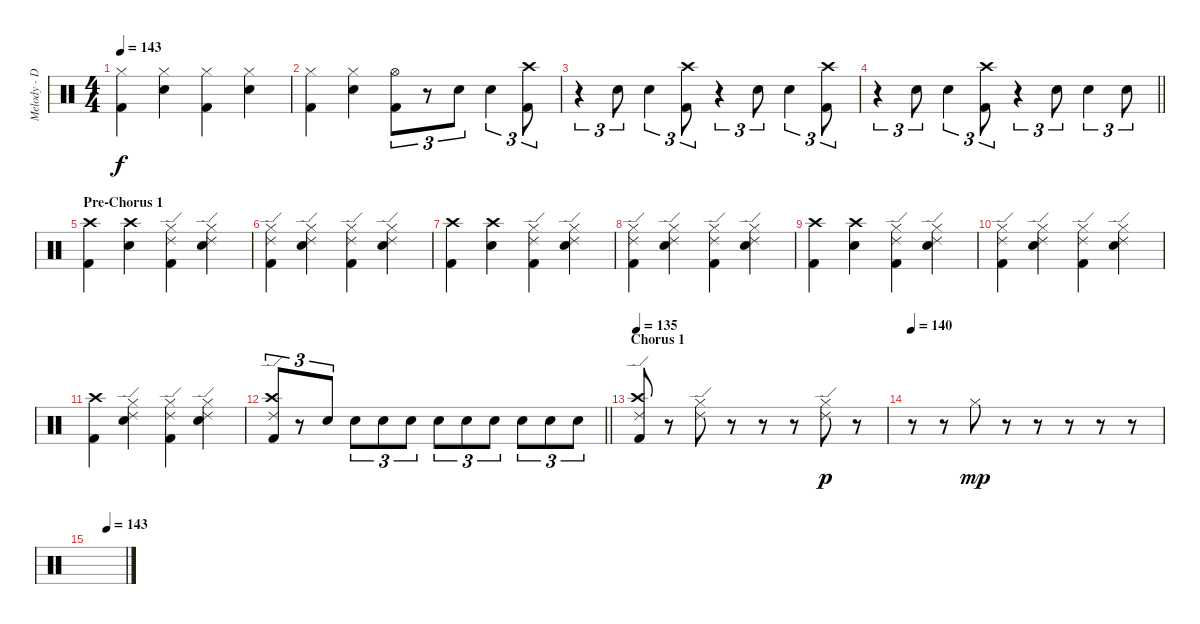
\track ("Melody - Drums" "Melody - D") {instrument percussion}
\staff {score}
\articulation defaults
\ts (4 4)
\tempo 143
\clef neutral
\ks c
("Hi-Hat (closed)" "Kick (hit) 2").4{dy f} ("Hi-Hat (closed)" "Electric Snare (hit)").4 ("Hi-Hat (closed)" "Kick (hit) 2").4 ("Hi-Hat (closed)" "Electric Snare (hit)").4 |
("Hi-Hat (closed)" "Kick (hit) 2").4 ("Hi-Hat (closed)" "Electric Snare (hit)").4 ("Hi-Hat (open)" "Kick (hit) 2").8{tu (3 2)} r.8{tu (3 2)} "Electric Snare (hit)".8{tu (3 2)} "Electric Snare (hit)".4{tu (3 2)} ("Crash high (hit)" "Kick (hit) 2").8{tu (3 2)} |
r.4{tu (3 2)} "Electric Snare (hit)".8{tu (3 2)} "Electric Snare (hit)".4{tu (3 2)} ("Crash high (hit)" "Kick (hit) 2").8{tu (3 2)} r.4{tu (3 2)} "Electric Snare (hit)".8{tu (3 2)} "Electric Snare (hit)".4{tu (3 2)} ("Crash high (hit)" "Kick (hit) 2").8{tu (3 2)} |
\barLineRight lightlight
r.4{tu (3 2)} "Electric Snare (hit)".8{tu (3 2)} "Electric Snare (hit)".4{tu (3 2)} ("Crash high (hit)" "Kick (hit) 2").8{tu (3 2)} r.4{tu (3 2)} "Electric Snare (hit)".8{tu (3 2)} "Electric Snare (hit)".4{tu (3 2)} "Electric Snare (hit)".8{tu (3 2)} |
\section ("" "Pre-Chorus 1")
("Crash high (hit)" "Kick (hit) 2").4 ("Crash high (hit)" "Electric Snare (hit)").4 ("Hi-Hat (closed)" "Ride (edge) 2" "Kick (hit) 2").4 ("Hi-Hat (closed)" "Ride (edge) 2" "Electric Snare (hit)").4 |
("Hi-Hat (closed)" "Ride (edge) 2" "Kick (hit) 2").4 ("Hi-Hat (closed)" "Ride (edge) 2" "Electric Snare (hit)").4 ("Hi-Hat (closed)" "Ride (edge) 2" "Kick (hit) 2").4 ("Hi-Hat (closed)" "Ride (edge) 2" "Electric Snare (hit)").4 |
("Crash high (hit)" "Kick (hit) 2").4 ("Crash high (hit)" "Electric Snare (hit)").4 ("Hi-Hat (closed)" "Ride (edge) 2" "Kick (hit) 2").4 ("Hi-Hat (closed)" "Ride (edge) 2" "Electric Snare (hit)").4 |
("Hi-Hat (closed)" "Ride (edge) 2" "Kick (hit) 2").4 ("Hi-Hat (closed)" "Ride (edge) 2" "Electric Snare (hit)").4 ("Hi-Hat (closed)" "Ride (edge) 2" "Kick (hit) 2").4 ("Hi-Hat (closed)" "Ride (edge) 2" "Electric Snare (hit)").4 |
("Crash high (hit)" "Kick (hit) 2").4 ("Crash high (hit)" "Electric Snare (hit)").4 ("Hi-Hat (closed)" "Ride (edge) 2" "Kick (hit) 2").4 ("Hi-Hat (closed)" "Ride (edge) 2" "Electric Snare (hit)").4 |
("Hi-Hat (closed)" "Ride (edge) 2" "Kick (hit) 2").4 ("Hi-Hat (closed)" "Ride (edge) 2" "Electric Snare (hit)").4 ("Hi-Hat (closed)" "Ride (edge) 2" "Kick (hit) 2").4 ("Hi-Hat (closed)" "Ride (edge) 2" "Electric Snare (hit)").4 |
("Crash high (hit)" "Kick (hit) 2").4 ("Hi-Hat (closed)" "Ride (edge) 2" "Electric Snare (hit)").4 ("Hi-Hat (closed)" "Ride (edge) 2" "Kick (hit) 2").4 ("Hi-Hat (closed)" "Ride (edge) 2" "Electric Snare (hit)").4 |
\barLineRight lightlight
("Crash high (hit)" "Ride (edge) 2" "Kick (hit) 2").8{tu (3 2)} r.8{tu (3 2)} "Electric Snare (hit)".8{tu (3 2)} "Electric Snare (hit)".8{tu (3 2)} "Electric Snare (hit)".8{tu (3 2)} "Electric Snare (hit)".8{tu (3 2)} "Electric Snare (hit)".8{tu (3 2)} "Electric Snare (hit)".8{tu (3 2)} "Electric Snare (hit)".8{tu (3 2)} "Electric Snare (hit)".8{tu (3 2)} "Electric Snare (hit)".8{tu (3 2)} "Electric Snare (hit)".8{tu (3 2)} |
\section ("" "Chorus 1")
\tempo 135
("Crash high (hit)" "Ride (edge) 2" "Kick (hit) 2").8 r.8 ("Hi-Hat (closed)" "Ride (edge) 2").8 r.8 r.8 r.8 ("Hi-Hat (closed)" "Ride (edge) 2").8{dy p} r.8 |
\tempo 140
r.8 r.8 "Hi-Hat (closed)".8{dy mp} r.8 r.8 r.8 r.8 r.8 |
\tempo (143 0.5)
